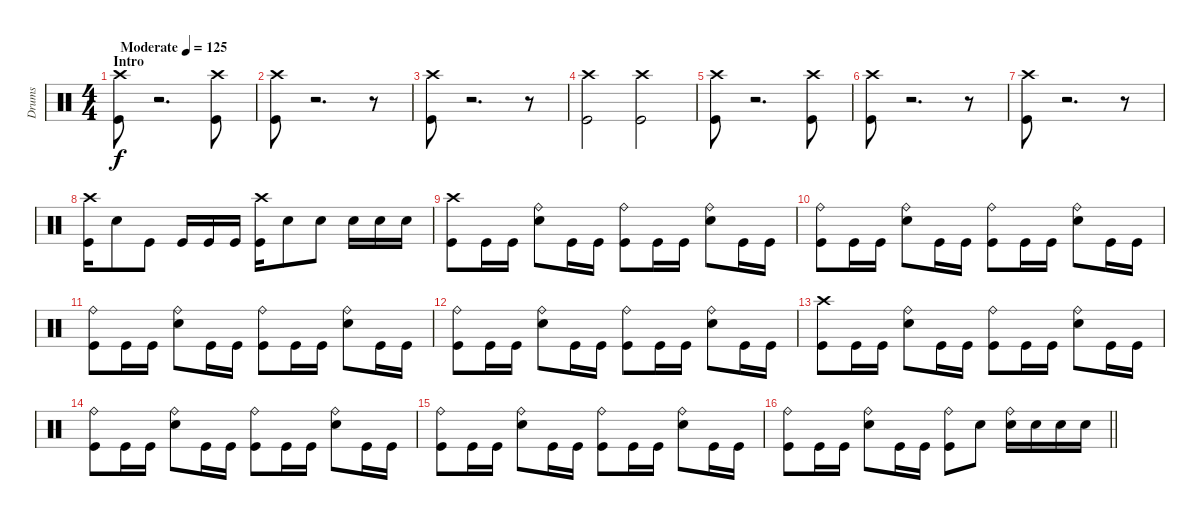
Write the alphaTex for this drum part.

\track ("Drums " "Drums ") {instrument percussion}
\staff {score}
\articulation defaults
\ts (4 4)
\section ("" "Intro ")
\tempo (125 "Moderate")
\clef neutral
\ks c
("Crash high (hit)" "Kick (hit)").8{dy f} r.2{d} ("Crash high (hit)" "Kick (hit)").8 |
("Crash high (hit)" "Kick (hit)").8 r.2{d} r.8 |
("Crash high (hit)" "Kick (hit)").8 r.2{d} r.8 |
("Crash high (hit)" "Kick (hit)").2 ("Crash high (hit)" "Kick (hit)").2 |
("Crash high (hit)" "Kick (hit)").8 r.2{d} ("Crash high (hit)" "Kick (hit)").8 |
("Crash high (hit)" "Kick (hit)").8 r.2{d} r.8 |
("Crash high (hit)" "Kick (hit)").8 r.2{d} r.8 |
("Crash high (hit)" "Kick (hit)").16 "Electric Snare (hit)".8 "Kick (hit)".8 "Kick (hit)".16 "Kick (hit)".16 "Kick (hit)".16 ("Crash high (hit)" "Kick (hit)").16 "Electric Snare (hit)".8 "Electric Snare (hit)".8 "Electric Snare (hit)".16 "Electric Snare (hit)".16 "Electric Snare (hit)".16 |
("Crash high (hit)" "Kick (hit)").8 "Kick (hit)".16 "Kick (hit)".16 ("Ride (bell)" "Electric Snare (hit)").8 "Kick (hit)".16 "Kick (hit)".16 ("Ride (bell)" "Kick (hit)").8 "Kick (hit)".16 "Kick (hit)".16 ("Ride (bell)" "Electric Snare (hit)").8 "Kick (hit)".16 "Kick (hit)".16 |
("Ride (bell)" "Kick (hit)").8 "Kick (hit)".16 "Kick (hit)".16 ("Ride (bell)" "Electric Snare (hit)").8 "Kick (hit)".16 "Kick (hit)".16 ("Ride (bell)" "Kick (hit)").8 "Kick (hit)".16 "Kick (hit)".16 ("Ride (bell)" "Electric Snare (hit)").8 "Kick (hit)".16 "Kick (hit)".16 |
("Ride (bell)" "Kick (hit)").8 "Kick (hit)".16 "Kick (hit)".16 ("Ride (bell)" "Electric Snare (hit)").8 "Kick (hit)".16 "Kick (hit)".16 ("Ride (bell)" "Kick (hit)").8 "Kick (hit)".16 "Kick (hit)".16 ("Ride (bell)" "Electric Snare (hit)").8 "Kick (hit)".16 "Kick (hit)".16 |
("Ride (bell)" "Kick (hit)").8 "Kick (hit)".16 "Kick (hit)".16 ("Ride (bell)" "Electric Snare (hit)").8 "Kick (hit)".16 "Kick (hit)".16 ("Ride (bell)" "Kick (hit)").8 "Kick (hit)".16 "Kick (hit)".16 ("Ride (bell)" "Electric Snare (hit)").8 "Kick (hit)".16 "Kick (hit)".16 |
("Crash high (hit)" "Kick (hit)").8 "Kick (hit)".16 "Kick (hit)".16 ("Ride (bell)" "Electric Snare (hit)").8 "Kick (hit)".16 "Kick (hit)".16 ("Ride (bell)" "Kick (hit)").8 "Kick (hit)".16 "Kick (hit)".16 ("Ride (bell)" "Electric Snare (hit)").8 "Kick (hit)".16 "Kick (hit)".16 |
("Ride (bell)" "Kick (hit)").8 "Kick (hit)".16 "Kick (hit)".16 ("Ride (bell)" "Electric Snare (hit)").8 "Kick (hit)".16 "Kick (hit)".16 ("Ride (bell)" "Kick (hit)").8 "Kick (hit)".16 "Kick (hit)".16 ("Ride (bell)" "Electric Snare (hit)").8 "Kick (hit)".16 "Kick (hit)".16 |
("Ride (bell)" "Kick (hit)").8 "Kick (hit)".16 "Kick (hit)".16 ("Ride (bell)" "Electric Snare (hit)").8 "Kick (hit)".16 "Kick (hit)".16 ("Ride (bell)" "Kick (hit)").8 "Kick (hit)".16 "Kick (hit)".16 ("Ride (bell)" "Electric Snare (hit)").8 "Kick (hit)".16 "Kick (hit)".16 |
\barLineRight lightlight
("Ride (bell)" "Kick (hit)").8 "Kick (hit)".16 "Kick (hit)".16 ("Ride (bell)" "Electric Snare (hit)").8 "Kick (hit)".16 "Kick (hit)".16 ("Ride (bell)" "Kick (hit)").8 "Electric Snare (hit)".8 ("Ride (bell)" "Electric Snare (hit)").16 "Electric Snare (hit)".16 "Electric Snare (hit)".16 "Electric Snare (hit)".16
